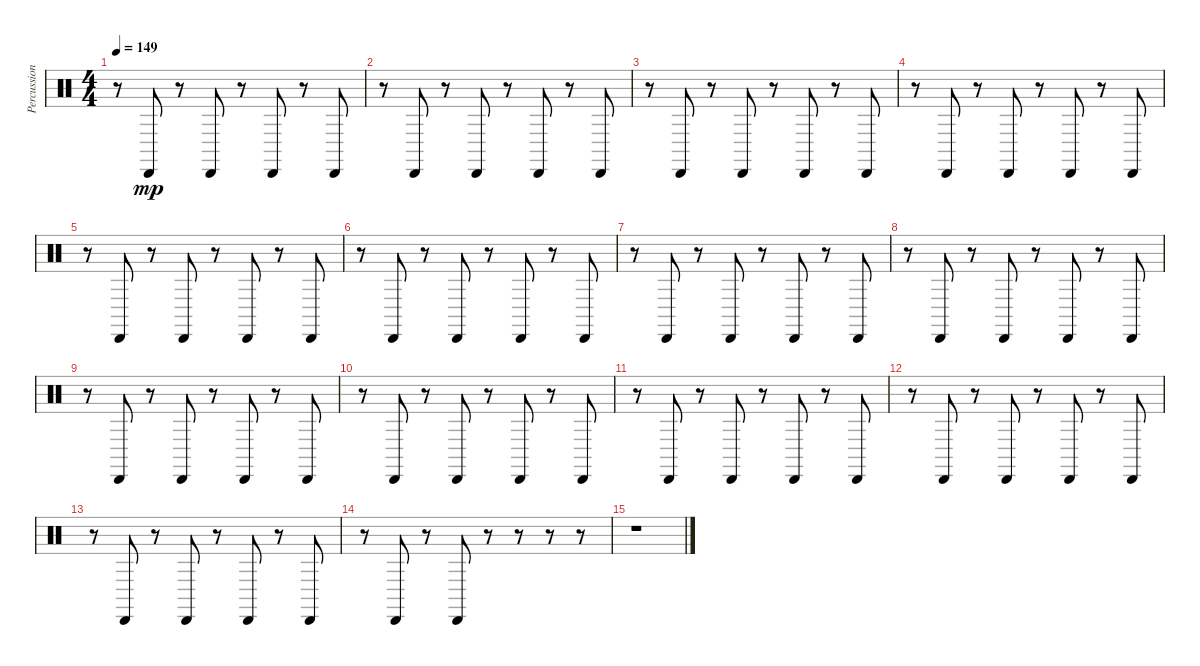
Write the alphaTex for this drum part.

\track ("Percussion 2" "Percussion") {instrument percussion}
\staff {score}
\articulation defaults
\ts (4 4)
\tempo 149
\clef neutral
\ks c
r.8{dy mp} "Cabasa (hit)".8 r.8 "Cabasa (hit)".8 r.8 "Cabasa (hit)".8 r.8 "Cabasa (hit)".8 |
r.8 "Cabasa (hit)".8 r.8 "Cabasa (hit)".8 r.8 "Cabasa (hit)".8 r.8 "Cabasa (hit)".8 |
r.8 "Cabasa (hit)".8 r.8 "Cabasa (hit)".8 r.8 "Cabasa (hit)".8 r.8 "Cabasa (hit)".8 |
r.8 "Cabasa (hit)".8 r.8 "Cabasa (hit)".8 r.8 "Cabasa (hit)".8 r.8 "Cabasa (hit)".8 |
r.8 "Cabasa (hit)".8 r.8 "Cabasa (hit)".8 r.8 "Cabasa (hit)".8 r.8 "Cabasa (hit)".8 |
r.8 "Cabasa (hit)".8 r.8 "Cabasa (hit)".8 r.8 "Cabasa (hit)".8 r.8 "Cabasa (hit)".8 |
r.8 "Cabasa (hit)".8 r.8 "Cabasa (hit)".8 r.8 "Cabasa (hit)".8 r.8 "Cabasa (hit)".8 |
r.8 "Cabasa (hit)".8 r.8 "Cabasa (hit)".8 r.8 "Cabasa (hit)".8 r.8 "Cabasa (hit)".8 |
r.8 "Cabasa (hit)".8 r.8 "Cabasa (hit)".8 r.8 "Cabasa (hit)".8 r.8 "Cabasa (hit)".8 |
r.8 "Cabasa (hit)".8 r.8 "Cabasa (hit)".8 r.8 "Cabasa (hit)".8 r.8 "Cabasa (hit)".8 |
r.8 "Cabasa (hit)".8 r.8 "Cabasa (hit)".8 r.8 "Cabasa (hit)".8 r.8 "Cabasa (hit)".8 |
r.8 "Cabasa (hit)".8 r.8 "Cabasa (hit)".8 r.8 "Cabasa (hit)".8 r.8 "Cabasa (hit)".8 |
r.8 "Cabasa (hit)".8 r.8 "Cabasa (hit)".8 r.8 "Cabasa (hit)".8 r.8 "Cabasa (hit)".8 |
r.8 "Cabasa (hit)".8 r.8 "Cabasa (hit)".8 r.8 r.8 r.8 r.8 |
r.1
